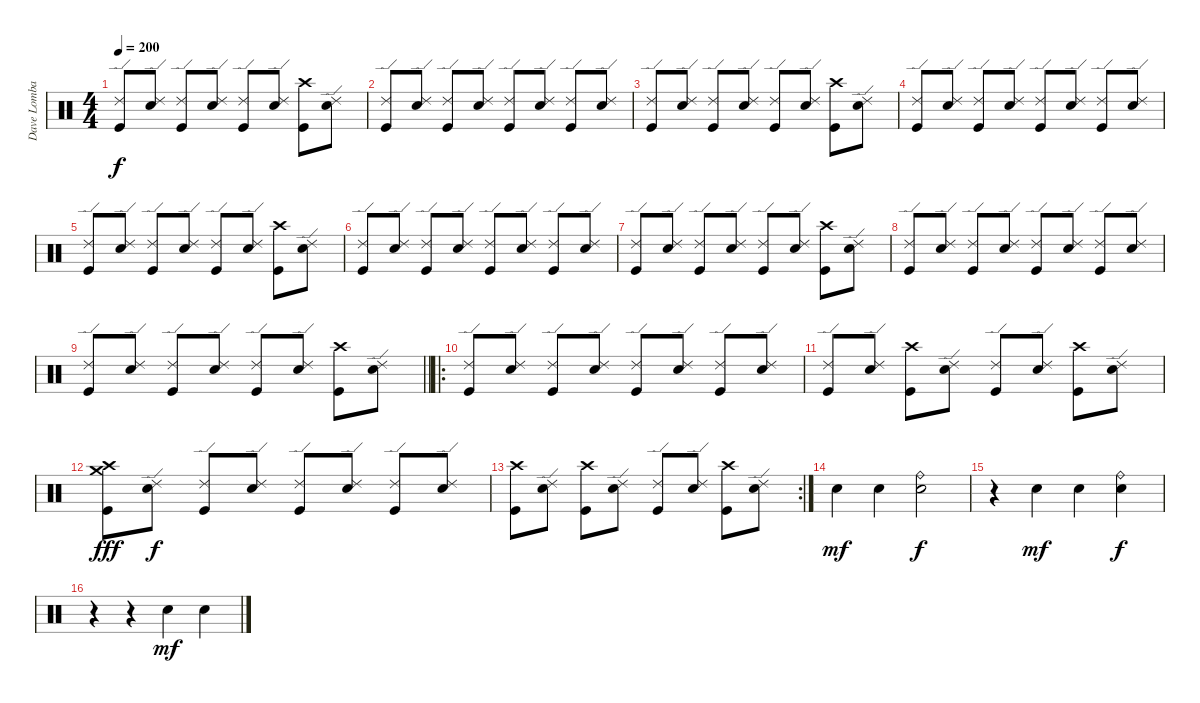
\track ("Dave Lombardo:" "Dave Lomba") {instrument percussion}
\staff {score}
\articulation defaults
\ts (4 4)
\tempo 200
\clef neutral
\ks c
("Ride (edge) 2" "Kick (hit)").8{dy f} ("Ride (edge) 2" "Snare (hit) 2").8 ("Ride (edge) 2" "Kick (hit)").8 ("Ride (edge) 2" "Snare (hit) 2").8 ("Ride (edge) 2" "Kick (hit)").8 ("Ride (edge) 2" "Snare (hit) 2").8 ("Crash high (hit)" "Kick (hit)").8 ("Ride (edge) 2" "Snare (hit) 2").8 |
("Ride (edge) 2" "Kick (hit)").8 ("Ride (edge) 2" "Snare (hit) 2").8 ("Ride (edge) 2" "Kick (hit)").8 ("Ride (edge) 2" "Snare (hit) 2").8 ("Ride (edge) 2" "Kick (hit)").8 ("Ride (edge) 2" "Snare (hit) 2").8 ("Ride (edge) 2" "Kick (hit)").8 ("Ride (edge) 2" "Snare (hit) 2").8 |
("Ride (edge) 2" "Kick (hit)").8 ("Ride (edge) 2" "Snare (hit) 2").8 ("Ride (edge) 2" "Kick (hit)").8 ("Ride (edge) 2" "Snare (hit) 2").8 ("Ride (edge) 2" "Kick (hit)").8 ("Ride (edge) 2" "Snare (hit) 2").8 ("Crash high (hit)" "Kick (hit)").8 ("Ride (edge) 2" "Snare (hit) 2").8 |
("Ride (edge) 2" "Kick (hit)").8 ("Ride (edge) 2" "Snare (hit) 2").8 ("Ride (edge) 2" "Kick (hit)").8 ("Ride (edge) 2" "Snare (hit) 2").8 ("Ride (edge) 2" "Kick (hit)").8 ("Ride (edge) 2" "Snare (hit) 2").8 ("Ride (edge) 2" "Kick (hit)").8 ("Ride (edge) 2" "Snare (hit) 2").8 |
("Ride (edge) 2" "Kick (hit)").8 ("Ride (edge) 2" "Snare (hit) 2").8 ("Ride (edge) 2" "Kick (hit)").8 ("Ride (edge) 2" "Snare (hit) 2").8 ("Ride (edge) 2" "Kick (hit)").8 ("Ride (edge) 2" "Snare (hit) 2").8 ("Crash high (hit)" "Kick (hit)").8 ("Ride (edge) 2" "Snare (hit) 2").8 |
("Ride (edge) 2" "Kick (hit)").8 ("Ride (edge) 2" "Snare (hit) 2").8 ("Ride (edge) 2" "Kick (hit)").8 ("Ride (edge) 2" "Snare (hit) 2").8 ("Ride (edge) 2" "Kick (hit)").8 ("Ride (edge) 2" "Snare (hit) 2").8 ("Ride (edge) 2" "Kick (hit)").8 ("Ride (edge) 2" "Snare (hit) 2").8 |
("Ride (edge) 2" "Kick (hit)").8 ("Ride (edge) 2" "Snare (hit) 2").8 ("Ride (edge) 2" "Kick (hit)").8 ("Ride (edge) 2" "Snare (hit) 2").8 ("Ride (edge) 2" "Kick (hit)").8 ("Ride (edge) 2" "Snare (hit) 2").8 ("Crash high (hit)" "Kick (hit)").8 ("Ride (edge) 2" "Snare (hit) 2").8 |
("Ride (edge) 2" "Kick (hit)").8 ("Ride (edge) 2" "Snare (hit) 2").8 ("Ride (edge) 2" "Kick (hit)").8 ("Ride (edge) 2" "Snare (hit) 2").8 ("Ride (edge) 2" "Kick (hit)").8 ("Ride (edge) 2" "Snare (hit) 2").8 ("Ride (edge) 2" "Kick (hit)").8 ("Ride (edge) 2" "Snare (hit) 2").8 |
\barLineRight lightlight
("Ride (edge) 2" "Kick (hit)").8 ("Ride (edge) 2" "Snare (hit) 2").8 ("Ride (edge) 2" "Kick (hit)").8 ("Ride (edge) 2" "Snare (hit) 2").8 ("Ride (edge) 2" "Kick (hit)").8 ("Ride (edge) 2" "Snare (hit) 2").8 ("Crash high (hit)" "Kick (hit)").8 ("Ride (edge) 2" "Snare (hit) 2").8 |
\ro
\section ("" "")
("Ride (edge) 2" "Kick (hit)").8 ("Ride (edge) 2" "Snare (hit) 2").8 ("Ride (edge) 2" "Kick (hit)").8 ("Ride (edge) 2" "Snare (hit) 2").8 ("Ride (edge) 2" "Kick (hit)").8 ("Ride (edge) 2" "Snare (hit) 2").8 ("Ride (edge) 2" "Kick (hit)").8 ("Ride (edge) 2" "Snare (hit) 2").8 |
("Ride (edge) 2" "Kick (hit)").8 ("Ride (edge) 2" "Snare (hit) 2").8 ("Crash high (hit)" "Kick (hit)").8 ("Ride (edge) 2" "Snare (hit) 2").8 ("Ride (edge) 2" "Kick (hit)").8 ("Ride (edge) 2" "Snare (hit) 2").8 ("Crash high (hit)" "Kick (hit)").8 ("Ride (edge) 2" "Snare (hit) 2").8 |
("Crash medium (hit)" "Crash high (hit)" "Kick (hit)").8{dy fff} ("Ride (edge) 2" "Snare (hit) 2").8{dy f} ("Ride (edge) 2" "Kick (hit)").8 ("Ride (edge) 2" "Snare (hit) 2").8 ("Ride (edge) 2" "Kick (hit)").8 ("Ride (edge) 2" "Snare (hit) 2").8 ("Ride (edge) 2" "Kick (hit)").8 ("Ride (edge) 2" "Snare (hit) 2").8 |
\rc 2
("Crash high (hit)" "Kick (hit)").8 ("Ride (edge) 2" "Snare (hit) 2").8 ("Crash high (hit)" "Kick (hit)").8 ("Ride (edge) 2" "Snare (hit) 2").8 ("Ride (edge) 2" "Kick (hit)").8 ("Ride (edge) 2" "Snare (hit) 2").8 ("Crash high (hit)" "Kick (hit)").8 ("Ride (edge) 2" "Snare (hit) 2").8 |
"Snare (hit) 2".4{dy mf} "Snare (hit) 2".4 ("Ride (bell)" "Electric Snare (hit)").2{dy f} |
r.4 "Snare (hit) 2".4{dy mf} "Snare (hit) 2".4 ("Ride (bell)" "Electric Snare (hit)").4{dy f} |
r.4 r.4 "Snare (hit) 2".4{dy mf} "Snare (hit) 2".4
